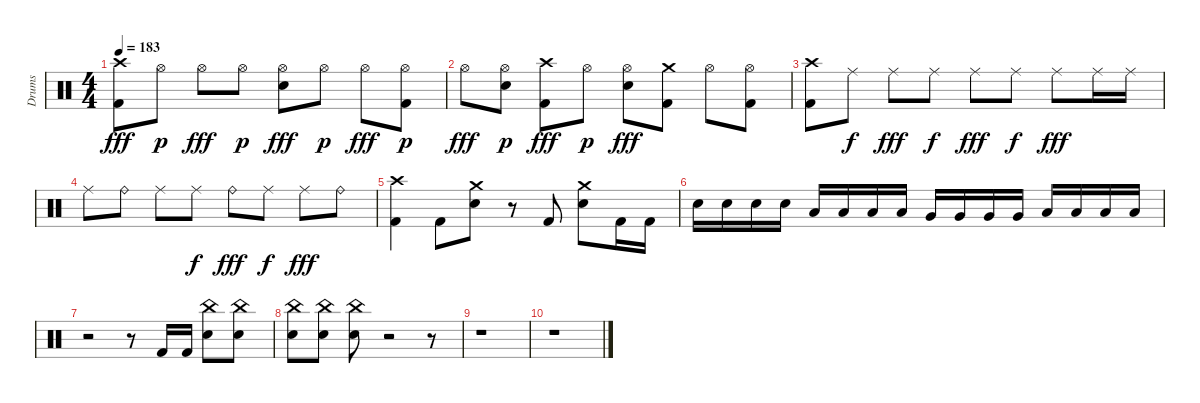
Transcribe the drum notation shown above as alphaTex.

\track ("Drums" "Drums") {instrument percussion}
\staff {score}
\articulation defaults
\ts (4 4)
\tempo 183
\clef neutral
\ks aminor
("Kick (hit) 2" "Crash high (hit)").8{dy fff} "Hi-Hat (open)".8{dy p} "Hi-Hat (open)".8{dy fff} "Hi-Hat (open)".8{dy p} ("Hi-Hat (open)" "Snare (hit) 2").8{dy fff} "Hi-Hat (open)".8{dy p} "Hi-Hat (open)".8{dy fff} ("Hi-Hat (open)" "Kick (hit) 2").8{dy p} |
"Hi-Hat (open)".8{dy fff} ("Hi-Hat (open)" "Snare (hit) 2").8{dy p} ("Crash high (hit)" "Kick (hit) 2").8{dy fff} "Hi-Hat (open)".8{dy p} ("Snare (hit) 2" "Hi-Hat (open)").8{dy fff} ("Kick (hit) 2" "Crash medium (hit)").8 "Hi-Hat (open)".8 ("Hi-Hat (open)" "Kick (hit) 2").8 |
("Kick (hit) 2" "Crash high (hit)").8 "Ride (middle)".8{dy f} "Ride (middle)".8{dy fff} "Ride (middle)".8{dy f} "Ride (middle)".8{dy fff} "Ride (middle)".8{dy f} "Ride (middle)".8{dy fff} "Ride (middle)".16 "Ride (middle)".16 |
"Ride (middle)".8 "Ride (bell)".8 "Ride (middle)".8 "Ride (middle)".8{dy f} "Ride (bell)".8{dy fff} "Ride (middle)".8{dy f} "Ride (middle)".8{dy fff} "Ride (bell)".8 |
("Crash high (hit)" "Kick (hit) 2").4 "Kick (hit) 2".8 ("Crash medium (hit)" "Snare (hit) 2").8 r.8 "Kick (hit) 2".8 ("Snare (hit) 2" "Crash medium (hit)").8 "Kick (hit) 2".16 "Kick (hit) 2".16 |
"Snare (hit) 2".16 "Snare (hit) 2".16 "Snare (hit) 2".16 "Snare (hit) 2".16 "Low Tom (hit)".16 "Low Tom (hit)".16 "Low Tom (hit)".16 "Low Tom (hit)".16 "Very Low Tom (hit)".16 "Very Low Tom (hit)".16 "Very Low Tom (hit)".16 "Very Low Tom (hit)".16 "Low Floor Tom (hit)".16 "Low Floor Tom (hit)".16 "Low Floor Tom (hit)".16 "Low Floor Tom (hit)".16 |
r.2 r.8 "Kick (hit) 2".16 "Kick (hit) 2".16 ("China (hit)" "Snare (hit) 2").8 ("China (hit)" "Snare (hit) 2").8 |
("China (hit)" "Snare (hit) 2").8 ("Snare (hit) 2" "China (hit)").8 ("Snare (hit) 2" "China (hit)").8 r.2 r.8 |
r.1 |
r.1
